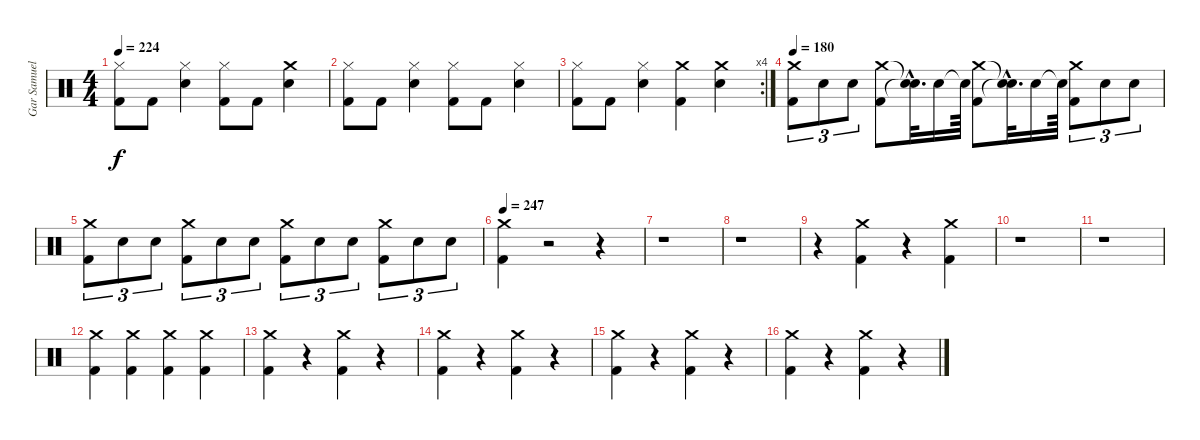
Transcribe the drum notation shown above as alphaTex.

\track ("Gar Samuelson (Drums)" "Gar Samuel") {instrument percussion}
\staff {score}
\articulation defaults
\ts (4 4)
\tempo 224
\clef neutral
\ks c
("Hi-Hat (closed)" "Kick (hit) 2").8{dy f} "Kick (hit) 2".8 ("Snare (hit) 2" "Hi-Hat (closed)").4 ("Hi-Hat (closed)" "Kick (hit) 2").8 "Kick (hit) 2".8 ("Crash medium (hit)" "Snare (hit) 2").4 |
("Hi-Hat (closed)" "Kick (hit) 2").8 "Kick (hit) 2".8 ("Snare (hit) 2" "Hi-Hat (closed)").4 ("Hi-Hat (closed)" "Kick (hit) 2").8 "Kick (hit) 2".8 ("Snare (hit) 2" "Hi-Hat (closed)").4 |
\rc 4
("Hi-Hat (closed)" "Kick (hit) 2").8 "Kick (hit) 2".8 ("Snare (hit) 2" "Hi-Hat (closed)").4 ("Crash medium (hit)" "Kick (hit) 2").4 ("Crash medium (hit)" "Snare (hit) 2").4 |
\tempo 180
("Crash medium (hit)" "Kick (hit) 2").8{tu (3 2)} "Snare (hit) 2".8{tu (3 2)} "Snare (hit) 2".8{tu (3 2)} ("Crash medium (hit)" "Kick (hit) 2").8 ("Snare (hit)"{hac t} "Snare (hit)"{hac t}).32{d} "Snare (hit) 2".16 "Snare (hit)"{t}.64 ("Crash medium (hit)" "Kick (hit) 2").8 ("Snare (hit)"{hac t} "Snare (hit)"{hac t}).32{d} "Snare (hit) 2".16 "Snare (hit)"{t}.64 ("Crash medium (hit)" "Kick (hit) 2").8{tu (3 2)} "Snare (hit) 2".8{tu (3 2)} "Snare (hit) 2".8{tu (3 2)} |
("Kick (hit) 2" "Crash medium (hit)").8{tu (3 2)} "Snare (hit) 2".8{tu (3 2)} "Snare (hit) 2".8{tu (3 2)} ("Kick (hit) 2" "Crash medium (hit)").8{tu (3 2)} "Snare (hit) 2".8{tu (3 2)} "Snare (hit) 2".8{tu (3 2)} ("Kick (hit) 2" "Crash medium (hit)").8{tu (3 2)} "Snare (hit) 2".8{tu (3 2)} "Snare (hit) 2".8{tu (3 2)} ("Kick (hit) 2" "Crash medium (hit)").8{tu (3 2)} "Snare (hit) 2".8{tu (3 2)} "Snare (hit) 2".8{tu (3 2)} |
\tempo 247
("Kick (hit) 2" "Crash medium (hit)").4 r.2 r.4 |
r.1 |
r.1 |
r.4 ("Kick (hit) 2" "Crash medium (hit)").4 r.4 ("Kick (hit) 2" "Crash medium (hit)").4 |
r.1 |
r.1 |
("Kick (hit) 2" "Crash medium (hit)").4 ("Kick (hit) 2" "Crash medium (hit)").4 ("Kick (hit) 2" "Crash medium (hit)").4 ("Kick (hit) 2" "Crash medium (hit)").4 |
("Crash medium (hit)" "Kick (hit) 2").4 r.4 ("Crash medium (hit)" "Kick (hit) 2").4 r.4 |
("Kick (hit) 2" "Crash medium (hit)").4 r.4 ("Kick (hit) 2" "Crash medium (hit)").4 r.4 |
("Kick (hit) 2" "Crash medium (hit)").4 r.4 ("Kick (hit) 2" "Crash medium (hit)").4 r.4 |
("Kick (hit) 2" "Crash medium (hit)").4 r.4 ("Kick (hit) 2" "Crash medium (hit)").4 r.4
